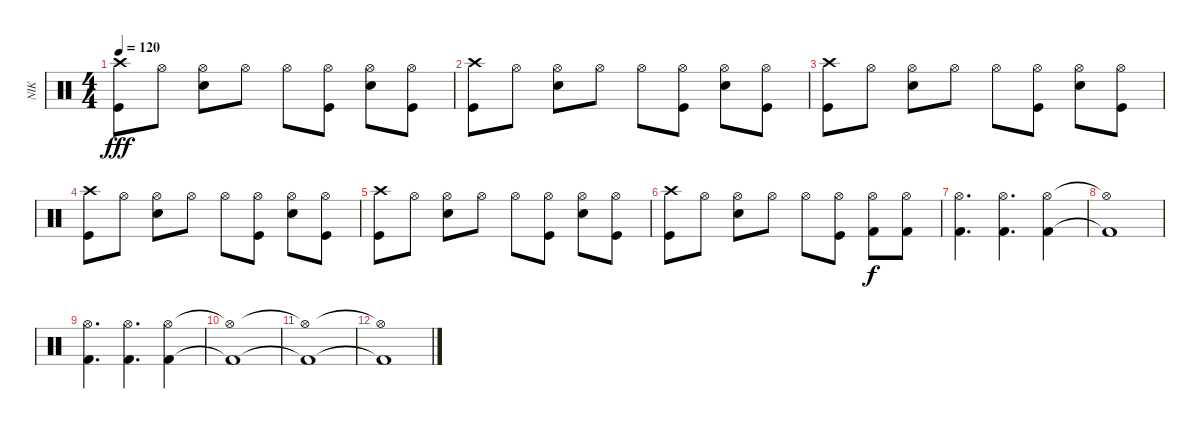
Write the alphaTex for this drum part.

\track ("NIK" "NIK") {instrument percussion}
\staff {score}
\articulation defaults
\ts (4 4)
\tempo 120
\clef neutral
\ks c
("Crash high (hit)" "Kick (hit)").8{dy fff} "Hi-Hat (open)".8 ("Hi-Hat (open)" "Snare (hit) 2").8 "Hi-Hat (open)".8 "Hi-Hat (open)".8 ("Hi-Hat (open)" "Kick (hit)").8 ("Hi-Hat (open)" "Snare (hit) 2").8 ("Hi-Hat (open)" "Kick (hit)").8 |
("Crash high (hit)" "Kick (hit)").8 "Hi-Hat (open)".8 ("Hi-Hat (open)" "Snare (hit) 2").8 "Hi-Hat (open)".8 "Hi-Hat (open)".8 ("Hi-Hat (open)" "Kick (hit)").8 ("Hi-Hat (open)" "Snare (hit) 2").8 ("Hi-Hat (open)" "Kick (hit)").8 |
("Crash high (hit)" "Kick (hit)").8 "Hi-Hat (open)".8 ("Hi-Hat (open)" "Snare (hit) 2").8 "Hi-Hat (open)".8 "Hi-Hat (open)".8 ("Hi-Hat (open)" "Kick (hit)").8 ("Hi-Hat (open)" "Snare (hit) 2").8 ("Hi-Hat (open)" "Kick (hit)").8 |
("Crash high (hit)" "Kick (hit)").8 "Hi-Hat (open)".8 ("Hi-Hat (open)" "Snare (hit) 2").8 "Hi-Hat (open)".8 "Hi-Hat (open)".8 ("Hi-Hat (open)" "Kick (hit)").8 ("Hi-Hat (open)" "Snare (hit) 2").8 ("Hi-Hat (open)" "Kick (hit)").8 |
("Crash high (hit)" "Kick (hit)").8 "Hi-Hat (open)".8 ("Hi-Hat (open)" "Snare (hit) 2").8 "Hi-Hat (open)".8 "Hi-Hat (open)".8 ("Hi-Hat (open)" "Kick (hit)").8 ("Hi-Hat (open)" "Snare (hit) 2").8 ("Hi-Hat (open)" "Kick (hit)").8 |
("Crash high (hit)" "Kick (hit)").8 "Hi-Hat (open)".8 ("Hi-Hat (open)" "Snare (hit) 2").8 "Hi-Hat (open)".8 "Hi-Hat (open)".8 ("Hi-Hat (open)" "Kick (hit)").8 ("Hi-Hat (open)" "Kick (hit) 2").8{dy f} ("Hi-Hat (open)" "Kick (hit) 2").8 |
("Hi-Hat (open)" "Kick (hit) 2").4{d} ("Hi-Hat (open)" "Kick (hit) 2").4{d} ("Hi-Hat (open)" "Kick (hit) 2").4 |
("Hi-Hat (open)"{t} "Kick (hit) 2"{t}).1 |
("Hi-Hat (open)" "Kick (hit) 2").4{d} ("Hi-Hat (open)" "Kick (hit) 2").4{d} ("Hi-Hat (open)" "Kick (hit) 2").4 |
("Hi-Hat (open)"{t} "Kick (hit) 2"{t}).1 |
("Hi-Hat (open)"{t} "Kick (hit) 2"{t}).1 |
("Hi-Hat (open)"{t} "Kick (hit) 2"{t}).1
